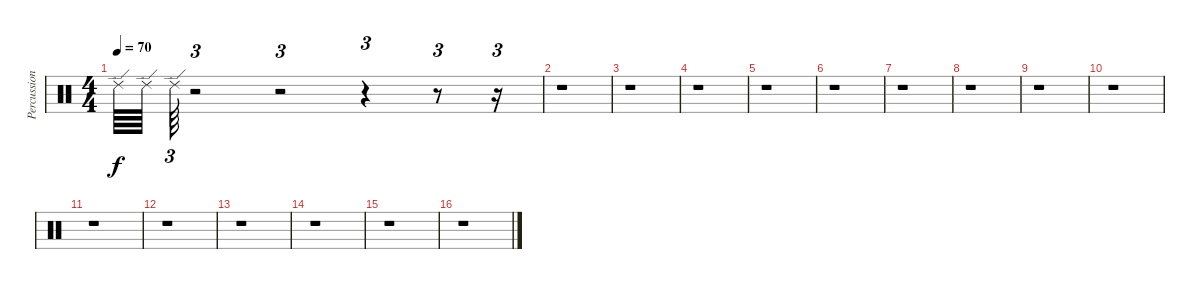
\track ("Percussions" "Percussion") {instrument percussion}
\staff {score}
\articulation defaults
\ts (4 4)
\tempo 70
\clef neutral
\ks c "Ride (edge) 2".64{dy f} "Ride (edge) 2".64 "Ride (edge) 2".64{tu (3 2)}
r.2{tu (3 2)} r.2{tu (3 2)} r.4{tu (3 2)} r.8{tu (3 2)} r.16{tu (3 2)} |
r.1 |
r.1 |
r.1 |
r.1 |
r.1 |
r.1 |
r.1 |
r.1 |
r.1 |
r.1 |
r.1 |
r.1 |
r.1 |
r.1 |
r.1
